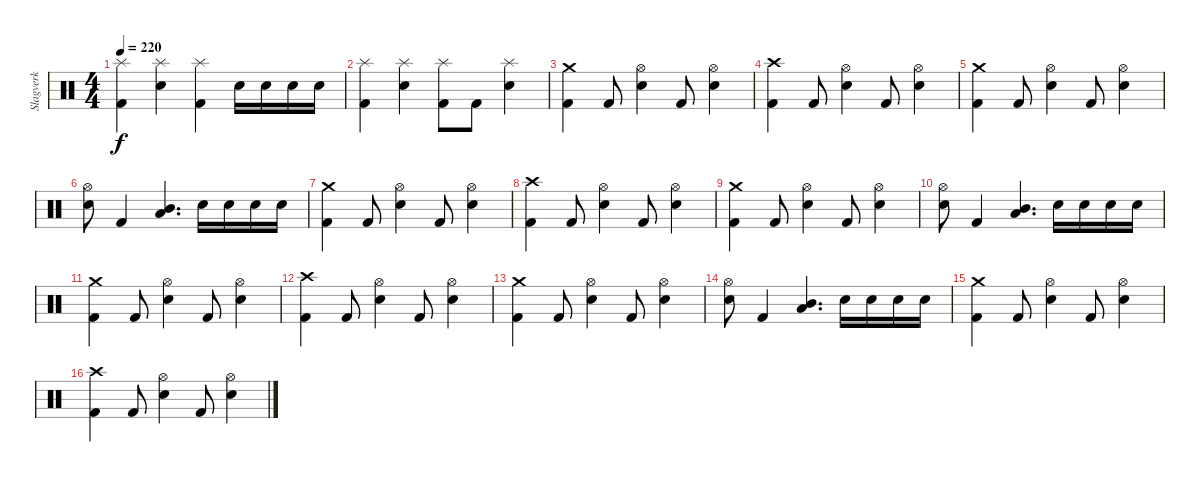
\track ("Slagverk" "Slagverk") {instrument percussion}
\staff {score}
\articulation defaults
\ts (4 4)
\tempo 220
\clef neutral
\ks c
("Kick (hit) 2" "Splash (hit)").4{dy f} ("Electric Snare (hit)" "Splash (hit)").4 ("Kick (hit) 2" "Splash (hit)").4 "Electric Snare (hit)".16 "Electric Snare (hit)".16 "Electric Snare (hit)".16 "Electric Snare (hit)".16 |
("Kick (hit) 2" "Splash (hit)").4 ("Electric Snare (hit)" "Splash (hit)").4 ("Kick (hit) 2" "Splash (hit)").8 "Kick (hit) 2".8 ("Electric Snare (hit)" "Splash (hit)").4 |
("Crash medium (hit)" "Kick (hit) 2").4 "Kick (hit) 2".8 ("Electric Snare (hit)" "Hi-Hat (open)").4 "Kick (hit) 2".8 ("Electric Snare (hit)" "Hi-Hat (open)").4 |
("Crash high (hit)" "Kick (hit) 2").4 "Kick (hit) 2".8 ("Electric Snare (hit)" "Hi-Hat (open)").4 "Kick (hit) 2".8 ("Electric Snare (hit)" "Hi-Hat (open)").4 |
("Crash medium (hit)" "Kick (hit) 2").4 "Kick (hit) 2".8 ("Electric Snare (hit)" "Hi-Hat (open)").4 "Kick (hit) 2".8 ("Electric Snare (hit)" "Hi-Hat (open)").4 |
("Electric Snare (hit)" "Hi-Hat (open)").8 "Kick (hit) 2".4 ("Mid Tom (hit)" "Low Tom (hit)").4{d} "Electric Snare (hit)".16 "Electric Snare (hit)".16 "Electric Snare (hit)".16 "Electric Snare (hit)".16 |
("Crash medium (hit)" "Kick (hit) 2").4 "Kick (hit) 2".8 ("Electric Snare (hit)" "Hi-Hat (open)").4 "Kick (hit) 2".8 ("Electric Snare (hit)" "Hi-Hat (open)").4 |
("Crash high (hit)" "Kick (hit) 2").4 "Kick (hit) 2".8 ("Electric Snare (hit)" "Hi-Hat (open)").4 "Kick (hit) 2".8 ("Electric Snare (hit)" "Hi-Hat (open)").4 |
("Crash medium (hit)" "Kick (hit) 2").4 "Kick (hit) 2".8 ("Electric Snare (hit)" "Hi-Hat (open)").4 "Kick (hit) 2".8 ("Electric Snare (hit)" "Hi-Hat (open)").4 |
("Electric Snare (hit)" "Hi-Hat (open)").8 "Kick (hit) 2".4 ("Mid Tom (hit)" "Low Tom (hit)").4{d} "Electric Snare (hit)".16 "Electric Snare (hit)".16 "Electric Snare (hit)".16 "Electric Snare (hit)".16 |
("Crash medium (hit)" "Kick (hit) 2").4 "Kick (hit) 2".8 ("Electric Snare (hit)" "Hi-Hat (open)").4 "Kick (hit) 2".8 ("Electric Snare (hit)" "Hi-Hat (open)").4 |
("Crash high (hit)" "Kick (hit) 2").4 "Kick (hit) 2".8 ("Electric Snare (hit)" "Hi-Hat (open)").4 "Kick (hit) 2".8 ("Electric Snare (hit)" "Hi-Hat (open)").4 |
("Crash medium (hit)" "Kick (hit) 2").4 "Kick (hit) 2".8 ("Electric Snare (hit)" "Hi-Hat (open)").4 "Kick (hit) 2".8 ("Electric Snare (hit)" "Hi-Hat (open)").4 |
("Electric Snare (hit)" "Hi-Hat (open)").8 "Kick (hit) 2".4 ("Mid Tom (hit)" "Low Tom (hit)").4{d} "Electric Snare (hit)".16 "Electric Snare (hit)".16 "Electric Snare (hit)".16 "Electric Snare (hit)".16 |
("Crash medium (hit)" "Kick (hit) 2").4 "Kick (hit) 2".8 ("Electric Snare (hit)" "Hi-Hat (open)").4 "Kick (hit) 2".8 ("Electric Snare (hit)" "Hi-Hat (open)").4 |
("Crash high (hit)" "Kick (hit) 2").4 "Kick (hit) 2".8 ("Electric Snare (hit)" "Hi-Hat (open)").4 "Kick (hit) 2".8 ("Electric Snare (hit)" "Hi-Hat (open)").4
